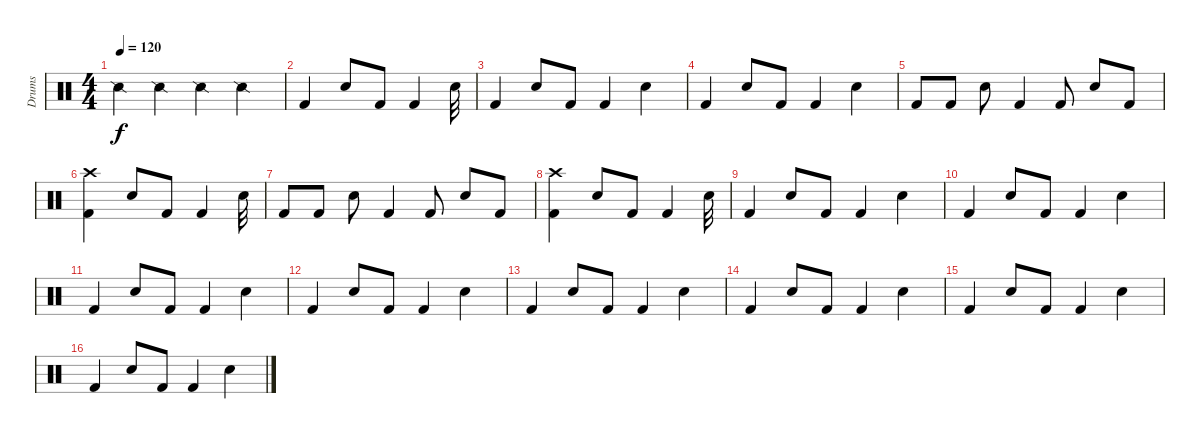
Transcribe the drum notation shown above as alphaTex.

\track ("Drums" "Drums") {instrument percussion}
\staff {score}
\articulation defaults
\ts (4 4)
\tempo 120
\clef neutral
\ks c "Snare (side stick) 2".4{dy f} "Snare (side stick) 2".4 "Snare (side stick) 2".4 "Snare (side stick) 2".4
|
"Kick (hit) 2".4 "Electric Snare (hit)".8 "Kick (hit) 2".8 "Kick (hit) 2".4 "Electric Snare (hit)".32 |
"Kick (hit) 2".4 "Electric Snare (hit)".8 "Kick (hit) 2".8 "Kick (hit) 2".4 "Electric Snare (hit)".4 |
"Kick (hit) 2".4 "Electric Snare (hit)".8 "Kick (hit) 2".8 "Kick (hit) 2".4 "Electric Snare (hit)".4 |
"Kick (hit) 2".8 "Kick (hit) 2".8 "Electric Snare (hit)".8 "Kick (hit) 2".4 "Kick (hit) 2".8 "Electric Snare (hit)".8 "Kick (hit) 2".8 |
("Crash high (hit)" "Kick (hit) 2").4 "Electric Snare (hit)".8 "Kick (hit) 2".8 "Kick (hit) 2".4 "Electric Snare (hit)".32 |
"Kick (hit) 2".8 "Kick (hit) 2".8 "Electric Snare (hit)".8 "Kick (hit) 2".4 "Kick (hit) 2".8 "Electric Snare (hit)".8 "Kick (hit) 2".8 |
("Crash high (hit)" "Kick (hit) 2").4 "Electric Snare (hit)".8 "Kick (hit) 2".8 "Kick (hit) 2".4 "Electric Snare (hit)".32 |
"Kick (hit) 2".4 "Electric Snare (hit)".8 "Kick (hit) 2".8 "Kick (hit) 2".4 "Electric Snare (hit)".4 |
"Kick (hit) 2".4 "Electric Snare (hit)".8 "Kick (hit) 2".8 "Kick (hit) 2".4 "Electric Snare (hit)".4 |
"Kick (hit) 2".4 "Electric Snare (hit)".8 "Kick (hit) 2".8 "Kick (hit) 2".4 "Electric Snare (hit)".4 |
"Kick (hit) 2".4 "Electric Snare (hit)".8 "Kick (hit) 2".8 "Kick (hit) 2".4 "Electric Snare (hit)".4 |
"Kick (hit) 2".4 "Electric Snare (hit)".8 "Kick (hit) 2".8 "Kick (hit) 2".4 "Electric Snare (hit)".4 |
"Kick (hit) 2".4 "Electric Snare (hit)".8 "Kick (hit) 2".8 "Kick (hit) 2".4 "Electric Snare (hit)".4 |
"Kick (hit) 2".4 "Electric Snare (hit)".8 "Kick (hit) 2".8 "Kick (hit) 2".4 "Electric Snare (hit)".4 |
"Kick (hit) 2".4 "Electric Snare (hit)".8 "Kick (hit) 2".8 "Kick (hit) 2".4 "Electric Snare (hit)".4
